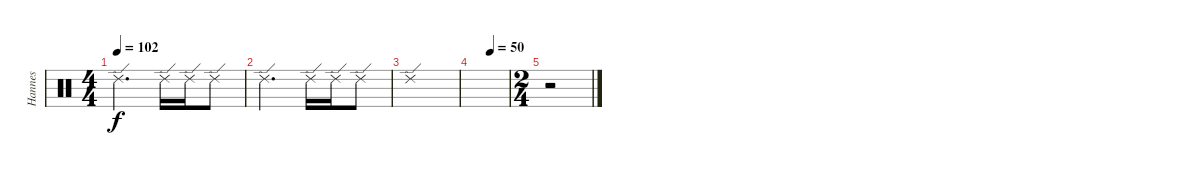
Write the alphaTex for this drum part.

\track ("Hannes" "Hannes") {instrument percussion}
\staff {score}
\articulation defaults
\ts (4 4)
\tempo 102
\clef neutral
\ks c "Ride (edge) 2".2{d dy f} "Ride (edge) 2".16 "Ride (edge) 2".16 "Ride (edge) 2".8
|
"Ride (edge) 2".2{d} "Ride (edge) 2".16 "Ride (edge) 2".16 "Ride (edge) 2".8 |
"Ride (edge) 2".1 |
\tempo (50 0.5)
|
\ts (2 4)
r.2
